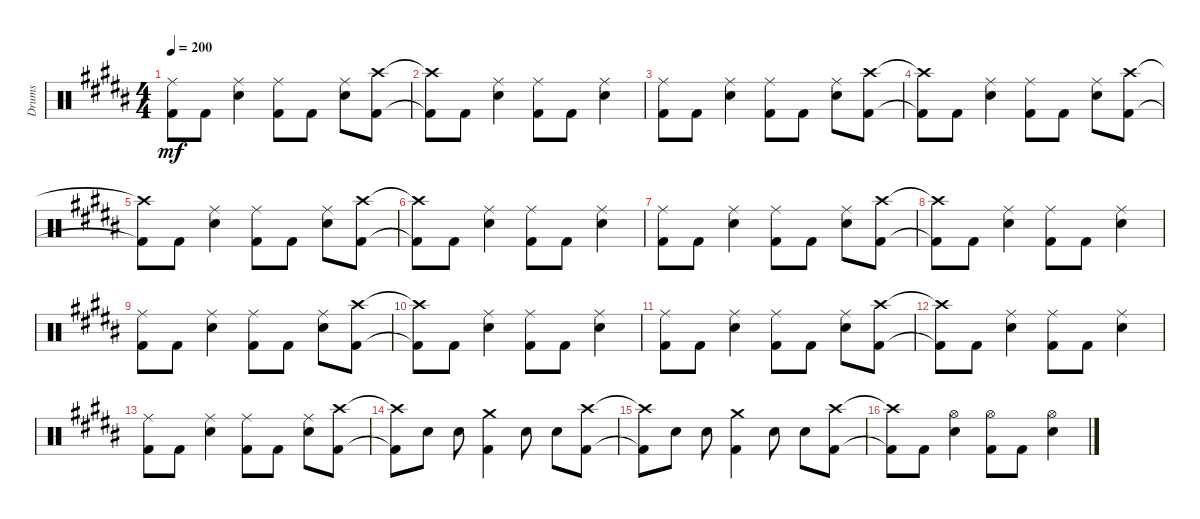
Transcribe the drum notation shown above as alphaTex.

\track ("Drums" "Drums") {instrument percussion}
\staff {score}
\articulation defaults
\ts (4 4)
\tempo 200
\clef neutral
\ks b
("Kick (hit) 2" "Ride (middle)").8{dy mf} "Kick (hit) 2".8 ("Snare (hit) 2" "Ride (middle)").4 ("Kick (hit) 2" "Ride (middle)").8 "Kick (hit) 2".8 ("Snare (hit) 2" "Ride (middle)").8 ("Kick (hit) 2" "Crash high (hit)").8 |
("Kick (hit) 2"{t} "Crash high (hit)"{t}).8 "Kick (hit) 2".8 ("Snare (hit) 2" "Ride (middle)").4 ("Kick (hit) 2" "Ride (middle)").8 "Kick (hit) 2".8 ("Snare (hit) 2" "Ride (middle)").4 |
("Kick (hit) 2" "Ride (middle)").8 "Kick (hit) 2".8 ("Snare (hit) 2" "Ride (middle)").4 ("Kick (hit) 2" "Ride (middle)").8 "Kick (hit) 2".8 ("Snare (hit) 2" "Ride (middle)").8 ("Kick (hit) 2" "Crash high (hit)").8 |
("Kick (hit) 2"{t} "Crash high (hit)"{t}).8 "Kick (hit) 2".8 ("Snare (hit) 2" "Ride (middle)").4 ("Kick (hit) 2" "Ride (middle)").8 "Kick (hit) 2".8 ("Snare (hit) 2" "Ride (middle)").8 ("Kick (hit) 2" "Crash high (hit)").8 |
("Kick (hit) 2"{t} "Crash high (hit)"{t}).8 "Kick (hit) 2".8 ("Snare (hit) 2" "Ride (middle)").4 ("Kick (hit) 2" "Ride (middle)").8 "Kick (hit) 2".8 ("Snare (hit) 2" "Ride (middle)").8 ("Kick (hit) 2" "Crash high (hit)").8 |
("Kick (hit) 2"{t} "Crash high (hit)"{t}).8 "Kick (hit) 2".8 ("Snare (hit) 2" "Ride (middle)").4 ("Kick (hit) 2" "Ride (middle)").8 "Kick (hit) 2".8 ("Snare (hit) 2" "Ride (middle)").4 |
("Kick (hit) 2" "Ride (middle)").8 "Kick (hit) 2".8 ("Snare (hit) 2" "Ride (middle)").4 ("Kick (hit) 2" "Ride (middle)").8 "Kick (hit) 2".8 ("Snare (hit) 2" "Ride (middle)").8 ("Kick (hit) 2" "Crash high (hit)").8 |
("Kick (hit) 2"{t} "Crash high (hit)"{t}).8 "Kick (hit) 2".8 ("Snare (hit) 2" "Ride (middle)").4 ("Kick (hit) 2" "Ride (middle)").8 "Kick (hit) 2".8 ("Snare (hit) 2" "Ride (middle)").4 |
("Kick (hit) 2" "Ride (middle)").8 "Kick (hit) 2".8 ("Snare (hit) 2" "Ride (middle)").4 ("Kick (hit) 2" "Ride (middle)").8 "Kick (hit) 2".8 ("Snare (hit) 2" "Ride (middle)").8 ("Kick (hit) 2" "Crash high (hit)").8 |
("Kick (hit) 2"{t} "Crash high (hit)"{t}).8 "Kick (hit) 2".8 ("Snare (hit) 2" "Ride (middle)").4 ("Kick (hit) 2" "Ride (middle)").8 "Kick (hit) 2".8 ("Snare (hit) 2" "Ride (middle)").4 |
("Kick (hit) 2" "Ride (middle)").8 "Kick (hit) 2".8 ("Snare (hit) 2" "Ride (middle)").4 ("Kick (hit) 2" "Ride (middle)").8 "Kick (hit) 2".8 ("Snare (hit) 2" "Ride (middle)").8 ("Kick (hit) 2" "Crash high (hit)").8 |
("Kick (hit) 2"{t} "Crash high (hit)"{t}).8 "Kick (hit) 2".8 ("Snare (hit) 2" "Ride (middle)").4 ("Kick (hit) 2" "Ride (middle)").8 "Kick (hit) 2".8 ("Snare (hit) 2" "Ride (middle)").4 |
("Kick (hit) 2" "Ride (middle)").8 "Kick (hit) 2".8 ("Snare (hit) 2" "Ride (middle)").4 ("Kick (hit) 2" "Ride (middle)").8 "Kick (hit) 2".8 ("Snare (hit) 2" "Ride (middle)").8 ("Kick (hit) 2" "Crash high (hit)").8 |
("Kick (hit) 2"{t} "Crash high (hit)"{t}).8 "Snare (hit) 2".8 "Snare (hit) 2".8 ("Kick (hit) 2" "Crash medium (hit)").4 "Snare (hit) 2".8 "Snare (hit) 2".8 ("Kick (hit) 2" "Crash high (hit)").8 |
("Kick (hit) 2"{t} "Crash high (hit)"{t}).8 "Snare (hit) 2".8 "Snare (hit) 2".8 ("Kick (hit) 2" "Crash medium (hit)").4 "Snare (hit) 2".8 "Snare (hit) 2".8 ("Kick (hit) 2" "Crash high (hit)").8 |
("Kick (hit) 2"{t} "Crash high (hit)"{t}).8 "Kick (hit) 2".8 ("Snare (hit) 2" "Hi-Hat (open)").4 ("Kick (hit) 2" "Hi-Hat (open)").8 "Kick (hit) 2".8 ("Snare (hit) 2" "Hi-Hat (open)").4
